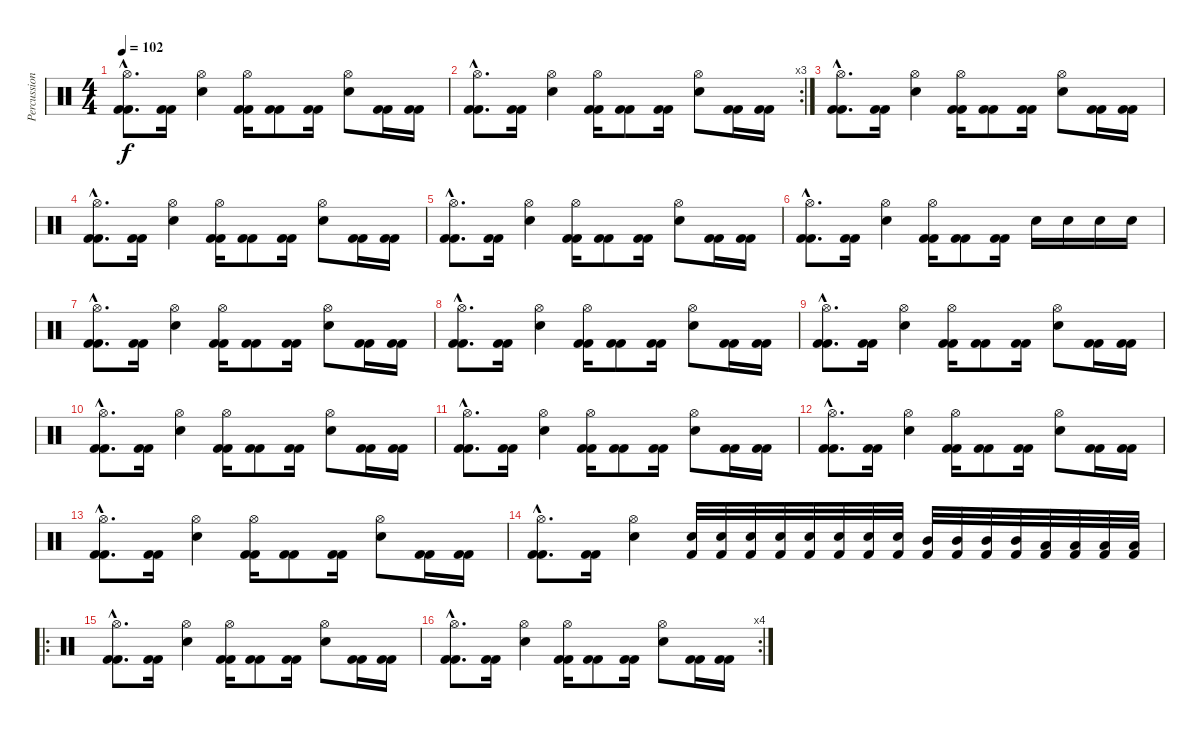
\track ("Percussion" "Percussion") {instrument percussion}
\staff {score}
\articulation defaults
\ts (4 4)
\tempo 102
\clef neutral
\ks c
("Kick (hit) 2"{hac} "Hi-Hat (open)"{hac} "Kick (hit) 2"{hac}).8{d dy f} ("Kick (hit) 2" "Kick (hit) 2").16 ("Snare (hit) 2" "Hi-Hat (open)").4 ("Kick (hit) 2" "Hi-Hat (open)" "Kick (hit) 2").16 ("Kick (hit) 2" "Kick (hit) 2").8 ("Kick (hit) 2" "Kick (hit) 2").16 ("Snare (hit) 2" "Hi-Hat (open)").8 ("Kick (hit) 2" "Kick (hit) 2").16 ("Kick (hit) 2" "Kick (hit) 2").16 |
\rc 3
("Kick (hit) 2"{hac} "Hi-Hat (open)"{hac} "Kick (hit) 2"{hac}).8{d} ("Kick (hit) 2" "Kick (hit) 2").16 ("Snare (hit) 2" "Hi-Hat (open)").4 ("Kick (hit) 2" "Hi-Hat (open)" "Kick (hit) 2").16 ("Kick (hit) 2" "Kick (hit) 2").8 ("Kick (hit) 2" "Kick (hit) 2").16 ("Snare (hit) 2" "Hi-Hat (open)").8 ("Kick (hit) 2" "Kick (hit) 2").16 ("Kick (hit) 2" "Kick (hit) 2").16 |
("Kick (hit) 2"{hac} "Hi-Hat (open)"{hac} "Kick (hit) 2"{hac}).8{d} ("Kick (hit) 2" "Kick (hit) 2").16 ("Snare (hit) 2" "Hi-Hat (open)").4 ("Kick (hit) 2" "Hi-Hat (open)" "Kick (hit) 2").16 ("Kick (hit) 2" "Kick (hit) 2").8 ("Kick (hit) 2" "Kick (hit) 2").16 ("Snare (hit) 2" "Hi-Hat (open)").8 ("Kick (hit) 2" "Kick (hit) 2").16 ("Kick (hit) 2" "Kick (hit) 2").16 |
("Kick (hit) 2"{hac} "Hi-Hat (open)"{hac} "Kick (hit) 2"{hac}).8{d} ("Kick (hit) 2" "Kick (hit) 2").16 ("Snare (hit) 2" "Hi-Hat (open)").4 ("Kick (hit) 2" "Hi-Hat (open)" "Kick (hit) 2").16 ("Kick (hit) 2" "Kick (hit) 2").8 ("Kick (hit) 2" "Kick (hit) 2").16 ("Snare (hit) 2" "Hi-Hat (open)").8 ("Kick (hit) 2" "Kick (hit) 2").16 ("Kick (hit) 2" "Kick (hit) 2").16 |
("Kick (hit) 2"{hac} "Hi-Hat (open)"{hac} "Kick (hit) 2"{hac}).8{d} ("Kick (hit) 2" "Kick (hit) 2").16 ("Snare (hit) 2" "Hi-Hat (open)").4 ("Kick (hit) 2" "Hi-Hat (open)" "Kick (hit) 2").16 ("Kick (hit) 2" "Kick (hit) 2").8 ("Kick (hit) 2" "Kick (hit) 2").16 ("Snare (hit) 2" "Hi-Hat (open)").8 ("Kick (hit) 2" "Kick (hit) 2").16 ("Kick (hit) 2" "Kick (hit) 2").16 |
("Kick (hit) 2"{hac} "Hi-Hat (open)"{hac} "Kick (hit) 2"{hac}).8{d} ("Kick (hit) 2" "Kick (hit) 2").16 ("Snare (hit) 2" "Hi-Hat (open)").4 ("Kick (hit) 2" "Hi-Hat (open)" "Kick (hit) 2").16 ("Kick (hit) 2" "Kick (hit) 2").8 ("Kick (hit) 2" "Kick (hit) 2").16 "Snare (hit) 2".16 "Snare (hit) 2".16 "Snare (hit) 2".16 "Snare (hit) 2".16 |
("Kick (hit) 2"{hac} "Hi-Hat (open)"{hac} "Kick (hit) 2"{hac}).8{d} ("Kick (hit) 2" "Kick (hit) 2").16 ("Snare (hit) 2" "Hi-Hat (open)").4 ("Kick (hit) 2" "Hi-Hat (open)" "Kick (hit) 2").16 ("Kick (hit) 2" "Kick (hit) 2").8 ("Kick (hit) 2" "Kick (hit) 2").16 ("Snare (hit) 2" "Hi-Hat (open)").8 ("Kick (hit) 2" "Kick (hit) 2").16 ("Kick (hit) 2" "Kick (hit) 2").16 |
("Kick (hit) 2"{hac} "Hi-Hat (open)"{hac} "Kick (hit) 2"{hac}).8{d} ("Kick (hit) 2" "Kick (hit) 2").16 ("Snare (hit) 2" "Hi-Hat (open)").4 ("Kick (hit) 2" "Hi-Hat (open)" "Kick (hit) 2").16 ("Kick (hit) 2" "Kick (hit) 2").8 ("Kick (hit) 2" "Kick (hit) 2").16 ("Snare (hit) 2" "Hi-Hat (open)").8 ("Kick (hit) 2" "Kick (hit) 2").16 ("Kick (hit) 2" "Kick (hit) 2").16 |
("Kick (hit) 2"{hac} "Hi-Hat (open)"{hac} "Kick (hit) 2"{hac}).8{d} ("Kick (hit) 2" "Kick (hit) 2").16 ("Snare (hit) 2" "Hi-Hat (open)").4 ("Kick (hit) 2" "Hi-Hat (open)" "Kick (hit) 2").16 ("Kick (hit) 2" "Kick (hit) 2").8 ("Kick (hit) 2" "Kick (hit) 2").16 ("Snare (hit) 2" "Hi-Hat (open)").8 ("Kick (hit) 2" "Kick (hit) 2").16 ("Kick (hit) 2" "Kick (hit) 2").16 |
("Kick (hit) 2"{hac} "Hi-Hat (open)"{hac} "Kick (hit) 2"{hac}).8{d} ("Kick (hit) 2" "Kick (hit) 2").16 ("Snare (hit) 2" "Hi-Hat (open)").4 ("Kick (hit) 2" "Hi-Hat (open)" "Kick (hit) 2").16 ("Kick (hit) 2" "Kick (hit) 2").8 ("Kick (hit) 2" "Kick (hit) 2").16 ("Snare (hit) 2" "Hi-Hat (open)").8 ("Kick (hit) 2" "Kick (hit) 2").16 ("Kick (hit) 2" "Kick (hit) 2").16 |
("Kick (hit) 2"{hac} "Hi-Hat (open)"{hac} "Kick (hit) 2"{hac}).8{d} ("Kick (hit) 2" "Kick (hit) 2").16 ("Snare (hit) 2" "Hi-Hat (open)").4 ("Kick (hit) 2" "Hi-Hat (open)" "Kick (hit) 2").16 ("Kick (hit) 2" "Kick (hit) 2").8 ("Kick (hit) 2" "Kick (hit) 2").16 ("Snare (hit) 2" "Hi-Hat (open)").8 ("Kick (hit) 2" "Kick (hit) 2").16 ("Kick (hit) 2" "Kick (hit) 2").16 |
("Kick (hit) 2"{hac} "Hi-Hat (open)"{hac} "Kick (hit) 2"{hac}).8{d} ("Kick (hit) 2" "Kick (hit) 2").16 ("Snare (hit) 2" "Hi-Hat (open)").4 ("Kick (hit) 2" "Hi-Hat (open)" "Kick (hit) 2").16 ("Kick (hit) 2" "Kick (hit) 2").8 ("Kick (hit) 2" "Kick (hit) 2").16 ("Snare (hit) 2" "Hi-Hat (open)").8 ("Kick (hit) 2" "Kick (hit) 2").16 ("Kick (hit) 2" "Kick (hit) 2").16 |
("Kick (hit) 2"{hac} "Hi-Hat (open)"{hac} "Kick (hit) 2"{hac}).8{d} ("Kick (hit) 2" "Kick (hit) 2").16 ("Snare (hit) 2" "Hi-Hat (open)").4 ("Kick (hit) 2" "Hi-Hat (open)" "Kick (hit) 2").16 ("Kick (hit) 2" "Kick (hit) 2").8 ("Kick (hit) 2" "Kick (hit) 2").16 ("Snare (hit) 2" "Hi-Hat (open)").8 ("Kick (hit) 2" "Kick (hit) 2").16 ("Kick (hit) 2" "Kick (hit) 2").16 |
("Kick (hit) 2"{hac} "Hi-Hat (open)"{hac} "Kick (hit) 2"{hac}).8{d} ("Kick (hit) 2" "Kick (hit) 2").16 ("Snare (hit) 2" "Hi-Hat (open)").4 ("Kick (hit) 2" "Snare (hit) 2").32 ("Kick (hit) 2" "Snare (hit) 2").32 ("Kick (hit) 2" "Snare (hit) 2").32 ("Kick (hit) 2" "Snare (hit) 2").32 ("Kick (hit) 2" "Snare (hit) 2").32 ("Kick (hit) 2" "Snare (hit) 2").32 ("Kick (hit) 2" "Snare (hit) 2").32 ("Kick (hit) 2" "Snare (hit) 2").32 ("Kick (hit) 2" "Mid Tom (hit)").32 ("Kick (hit) 2" "Mid Tom (hit)").32 ("Kick (hit) 2" "Mid Tom (hit)").32 ("Kick (hit) 2" "Mid Tom (hit)").32 ("Kick (hit) 2" "Low Tom (hit)").32 ("Kick (hit) 2" "Low Tom (hit)").32 ("Kick (hit) 2" "Low Tom (hit)").32 ("Kick (hit) 2" "Low Tom (hit)").32 |
\ro
("Kick (hit) 2"{hac} "Hi-Hat (open)"{hac} "Kick (hit) 2"{hac}).8{d} ("Kick (hit) 2" "Kick (hit) 2").16 ("Snare (hit) 2" "Hi-Hat (open)").4 ("Kick (hit) 2" "Hi-Hat (open)" "Kick (hit) 2").16 ("Kick (hit) 2" "Kick (hit) 2").8 ("Kick (hit) 2" "Kick (hit) 2").16 ("Snare (hit) 2" "Hi-Hat (open)").8 ("Kick (hit) 2" "Kick (hit) 2").16 ("Kick (hit) 2" "Kick (hit) 2").16 |
\rc 4
("Kick (hit) 2"{hac} "Hi-Hat (open)"{hac} "Kick (hit) 2"{hac}).8{d} ("Kick (hit) 2" "Kick (hit) 2").16 ("Snare (hit) 2" "Hi-Hat (open)").4 ("Kick (hit) 2" "Hi-Hat (open)" "Kick (hit) 2").16 ("Kick (hit) 2" "Kick (hit) 2").8 ("Kick (hit) 2" "Kick (hit) 2").16 ("Snare (hit) 2" "Hi-Hat (open)").8 ("Kick (hit) 2" "Kick (hit) 2").16 ("Kick (hit) 2" "Kick (hit) 2").16
